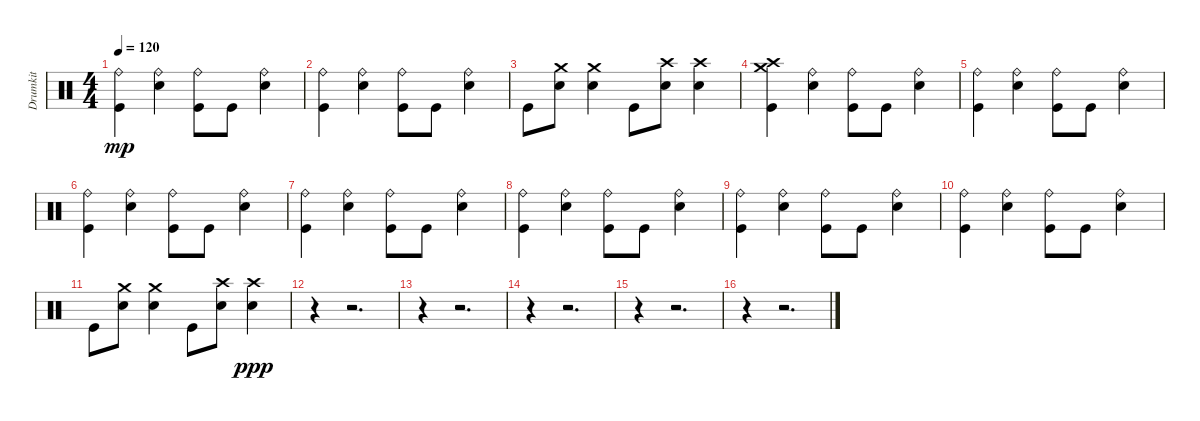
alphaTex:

\track ("Drumkit" "Drumkit") {instrument percussion}
\staff {score}
\articulation defaults
\ts (4 4)
\tempo 120
\clef neutral
\ks c
("Kick (hit)" "Ride (bell)").4{dy mp} ("Snare (hit) 2" "Ride (bell)").4 ("Kick (hit)" "Ride (bell)").8 "Kick (hit)".8 ("Snare (hit) 2" "Ride (bell)").4 |
("Kick (hit)" "Ride (bell)").4 ("Snare (hit) 2" "Ride (bell)").4 ("Kick (hit)" "Ride (bell)").8 "Kick (hit)".8 ("Snare (hit) 2" "Ride (bell)").4 |
"Kick (hit)".8 ("Snare (hit) 2" "Crash medium (hit)").8 ("Snare (hit) 2" "Crash medium (hit)").4 "Kick (hit)".8 ("Snare (hit) 2" "Crash high (hit)").8 ("Snare (hit) 2" "Crash high (hit)").4 |
("Kick (hit)" "Crash high (hit)" "Crash medium (hit)").4 ("Snare (hit) 2" "Ride (bell)").4 ("Kick (hit)" "Ride (bell)").8 "Kick (hit)".8 ("Snare (hit) 2" "Ride (bell)").4 |
("Kick (hit)" "Ride (bell)").4 ("Snare (hit) 2" "Ride (bell)").4 ("Kick (hit)" "Ride (bell)").8 "Kick (hit)".8 ("Snare (hit) 2" "Ride (bell)").4 |
("Kick (hit)" "Ride (bell)").4 ("Snare (hit) 2" "Ride (bell)").4 ("Kick (hit)" "Ride (bell)").8 "Kick (hit)".8 ("Snare (hit) 2" "Ride (bell)").4 |
("Kick (hit)" "Ride (bell)").4 ("Snare (hit) 2" "Ride (bell)").4 ("Kick (hit)" "Ride (bell)").8 "Kick (hit)".8 ("Snare (hit) 2" "Ride (bell)").4 |
("Kick (hit)" "Ride (bell)").4 ("Snare (hit) 2" "Ride (bell)").4 ("Kick (hit)" "Ride (bell)").8 "Kick (hit)".8 ("Snare (hit) 2" "Ride (bell)").4 |
("Kick (hit)" "Ride (bell)").4 ("Snare (hit) 2" "Ride (bell)").4 ("Kick (hit)" "Ride (bell)").8 "Kick (hit)".8 ("Snare (hit) 2" "Ride (bell)").4 |
("Kick (hit)" "Ride (bell)").4 ("Snare (hit) 2" "Ride (bell)").4 ("Kick (hit)" "Ride (bell)").8 "Kick (hit)".8 ("Snare (hit) 2" "Ride (bell)").4 |
"Kick (hit)".8 ("Snare (hit) 2" "Crash medium (hit)").8 ("Snare (hit) 2" "Crash medium (hit)").4 "Kick (hit)".8 ("Snare (hit) 2" "Crash high (hit)").8 ("Snare (hit) 2" "Crash high (hit)").4{dy ppp} |
r.4 r.2{d} |
r.4 r.2{d} |
r.4 r.2{d} |
r.4 r.2{d} |
r.4 r.2{d}
